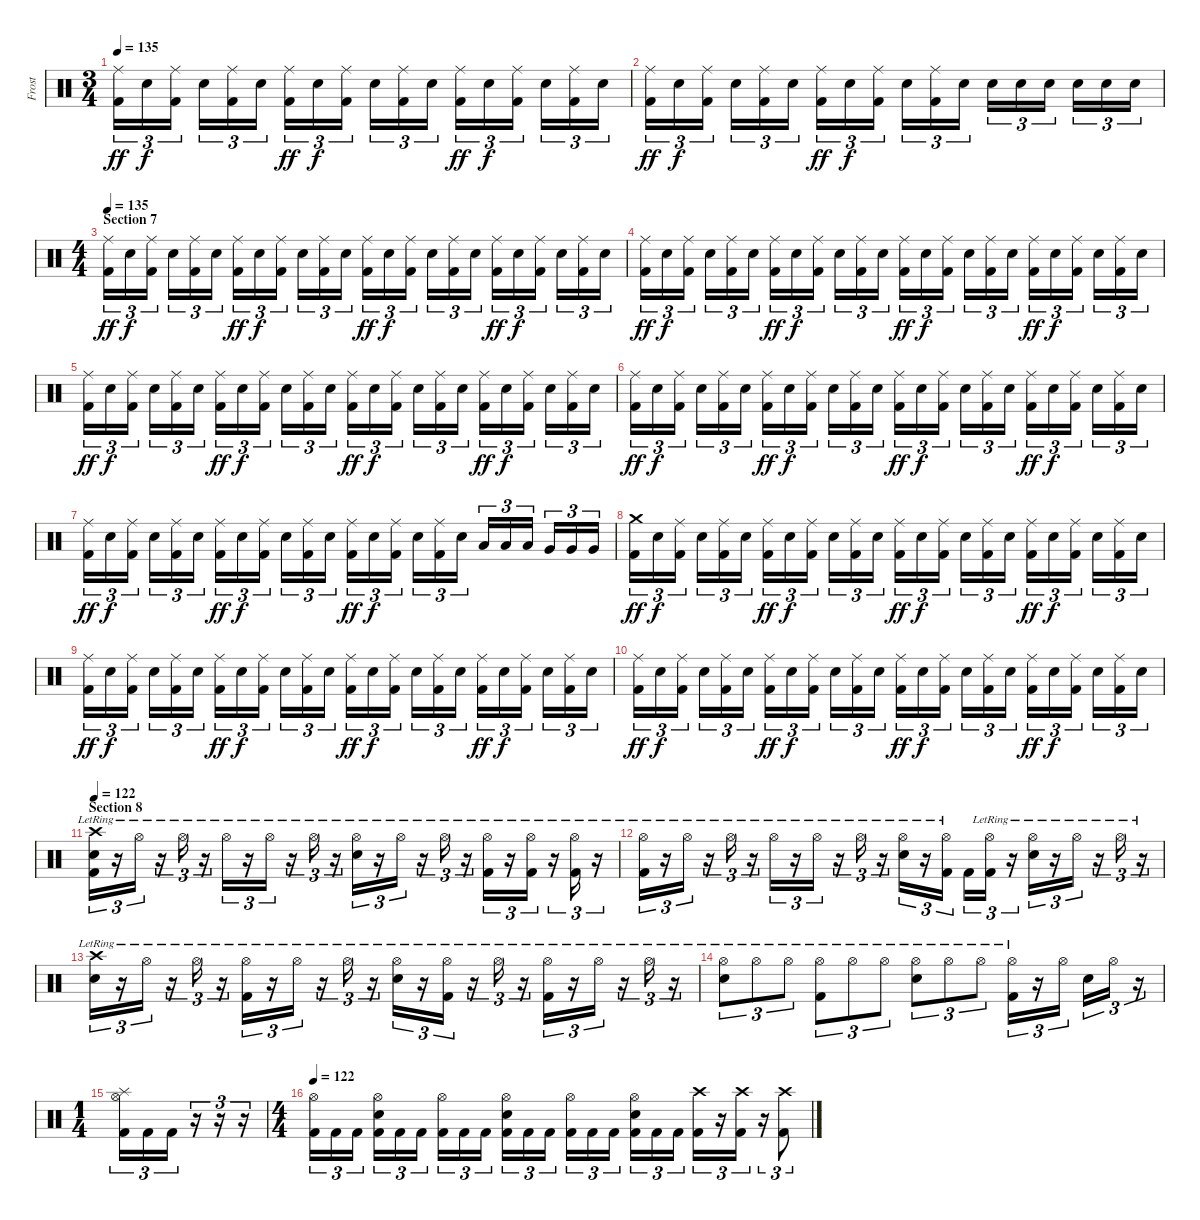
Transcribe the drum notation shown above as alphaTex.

\track ("Frost" "Frost") {instrument percussion}
\staff {score}
\articulation defaults
\ts (3 4)
\tempo 135
\clef neutral
\ks c
("Ride (middle)" "Kick (hit) 2").16{tu (3 2) dy ff} "Electric Snare (hit)".16{tu (3 2) dy f} ("Ride (middle)" "Kick (hit) 2").16{tu (3 2)} "Electric Snare (hit)".16{tu (3 2)} ("Ride (middle)" "Kick (hit) 2").16{tu (3 2)} "Electric Snare (hit)".16{tu (3 2)} ("Ride (middle)" "Kick (hit) 2").16{tu (3 2) dy ff} "Electric Snare (hit)".16{tu (3 2) dy f} ("Ride (middle)" "Kick (hit) 2").16{tu (3 2)} "Electric Snare (hit)".16{tu (3 2)} ("Ride (middle)" "Kick (hit) 2").16{tu (3 2)} "Electric Snare (hit)".16{tu (3 2)} ("Ride (middle)" "Kick (hit) 2").16{tu (3 2) dy ff} "Electric Snare (hit)".16{tu (3 2) dy f} ("Ride (middle)" "Kick (hit) 2").16{tu (3 2)} "Electric Snare (hit)".16{tu (3 2)} ("Ride (middle)" "Kick (hit) 2").16{tu (3 2)} "Electric Snare (hit)".16{tu (3 2)} |
("Ride (middle)" "Kick (hit) 2").16{tu (3 2) dy ff} "Electric Snare (hit)".16{tu (3 2) dy f} ("Ride (middle)" "Kick (hit) 2").16{tu (3 2)} "Electric Snare (hit)".16{tu (3 2)} ("Ride (middle)" "Kick (hit) 2").16{tu (3 2)} "Electric Snare (hit)".16{tu (3 2)} ("Ride (middle)" "Kick (hit) 2").16{tu (3 2) dy ff} "Electric Snare (hit)".16{tu (3 2) dy f} ("Ride (middle)" "Kick (hit) 2").16{tu (3 2)} "Electric Snare (hit)".16{tu (3 2)} ("Ride (middle)" "Kick (hit) 2").16{tu (3 2)} "Electric Snare (hit)".16{tu (3 2)} "Electric Snare (hit)".16{tu (3 2)} "Electric Snare (hit)".16{tu (3 2)} "Electric Snare (hit)".16{tu (3 2)} "Electric Snare (hit)".16{tu (3 2)} "Electric Snare (hit)".16{tu (3 2)} "Electric Snare (hit)".16{tu (3 2)} |
\ts (4 4)
\section ("" "Section 7")
\tempo 135
("Ride (middle)" "Kick (hit) 2").16{tu (3 2) dy ff} "Electric Snare (hit)".16{tu (3 2) dy f} ("Ride (middle)" "Kick (hit) 2").16{tu (3 2)} "Electric Snare (hit)".16{tu (3 2)} ("Ride (middle)" "Kick (hit) 2").16{tu (3 2)} "Electric Snare (hit)".16{tu (3 2)} ("Ride (middle)" "Kick (hit) 2").16{tu (3 2) dy ff} "Electric Snare (hit)".16{tu (3 2) dy f} ("Ride (middle)" "Kick (hit) 2").16{tu (3 2)} "Electric Snare (hit)".16{tu (3 2)} ("Ride (middle)" "Kick (hit) 2").16{tu (3 2)} "Electric Snare (hit)".16{tu (3 2)} ("Ride (middle)" "Kick (hit) 2").16{tu (3 2) dy ff} "Electric Snare (hit)".16{tu (3 2) dy f} ("Ride (middle)" "Kick (hit) 2").16{tu (3 2)} "Electric Snare (hit)".16{tu (3 2)} ("Ride (middle)" "Kick (hit) 2").16{tu (3 2)} "Electric Snare (hit)".16{tu (3 2)} ("Ride (middle)" "Kick (hit) 2").16{tu (3 2) dy ff} "Electric Snare (hit)".16{tu (3 2) dy f} ("Ride (middle)" "Kick (hit) 2").16{tu (3 2)} "Electric Snare (hit)".16{tu (3 2)} ("Ride (middle)" "Kick (hit) 2").16{tu (3 2)} "Electric Snare (hit)".16{tu (3 2)} |
("Ride (middle)" "Kick (hit) 2").16{tu (3 2) dy ff} "Electric Snare (hit)".16{tu (3 2) dy f} ("Ride (middle)" "Kick (hit) 2").16{tu (3 2)} "Electric Snare (hit)".16{tu (3 2)} ("Ride (middle)" "Kick (hit) 2").16{tu (3 2)} "Electric Snare (hit)".16{tu (3 2)} ("Ride (middle)" "Kick (hit) 2").16{tu (3 2) dy ff} "Electric Snare (hit)".16{tu (3 2) dy f} ("Ride (middle)" "Kick (hit) 2").16{tu (3 2)} "Electric Snare (hit)".16{tu (3 2)} ("Ride (middle)" "Kick (hit) 2").16{tu (3 2)} "Electric Snare (hit)".16{tu (3 2)} ("Ride (middle)" "Kick (hit) 2").16{tu (3 2) dy ff} "Electric Snare (hit)".16{tu (3 2) dy f} ("Ride (middle)" "Kick (hit) 2").16{tu (3 2)} "Electric Snare (hit)".16{tu (3 2)} ("Ride (middle)" "Kick (hit) 2").16{tu (3 2)} "Electric Snare (hit)".16{tu (3 2)} ("Ride (middle)" "Kick (hit) 2").16{tu (3 2) dy ff} "Electric Snare (hit)".16{tu (3 2) dy f} ("Ride (middle)" "Kick (hit) 2").16{tu (3 2)} "Electric Snare (hit)".16{tu (3 2)} ("Ride (middle)" "Kick (hit) 2").16{tu (3 2)} "Electric Snare (hit)".16{tu (3 2)} |
("Ride (middle)" "Kick (hit) 2").16{tu (3 2) dy ff} "Electric Snare (hit)".16{tu (3 2) dy f} ("Ride (middle)" "Kick (hit) 2").16{tu (3 2)} "Electric Snare (hit)".16{tu (3 2)} ("Ride (middle)" "Kick (hit) 2").16{tu (3 2)} "Electric Snare (hit)".16{tu (3 2)} ("Ride (middle)" "Kick (hit) 2").16{tu (3 2) dy ff} "Electric Snare (hit)".16{tu (3 2) dy f} ("Ride (middle)" "Kick (hit) 2").16{tu (3 2)} "Electric Snare (hit)".16{tu (3 2)} ("Ride (middle)" "Kick (hit) 2").16{tu (3 2)} "Electric Snare (hit)".16{tu (3 2)} ("Ride (middle)" "Kick (hit) 2").16{tu (3 2) dy ff} "Electric Snare (hit)".16{tu (3 2) dy f} ("Ride (middle)" "Kick (hit) 2").16{tu (3 2)} "Electric Snare (hit)".16{tu (3 2)} ("Ride (middle)" "Kick (hit) 2").16{tu (3 2)} "Electric Snare (hit)".16{tu (3 2)} ("Ride (middle)" "Kick (hit) 2").16{tu (3 2) dy ff} "Electric Snare (hit)".16{tu (3 2) dy f} ("Ride (middle)" "Kick (hit) 2").16{tu (3 2)} "Electric Snare (hit)".16{tu (3 2)} ("Ride (middle)" "Kick (hit) 2").16{tu (3 2)} "Electric Snare (hit)".16{tu (3 2)} |
("Ride (middle)" "Kick (hit) 2").16{tu (3 2) dy ff} "Electric Snare (hit)".16{tu (3 2) dy f} ("Ride (middle)" "Kick (hit) 2").16{tu (3 2)} "Electric Snare (hit)".16{tu (3 2)} ("Ride (middle)" "Kick (hit) 2").16{tu (3 2)} "Electric Snare (hit)".16{tu (3 2)} ("Ride (middle)" "Kick (hit) 2").16{tu (3 2) dy ff} "Electric Snare (hit)".16{tu (3 2) dy f} ("Ride (middle)" "Kick (hit) 2").16{tu (3 2)} "Electric Snare (hit)".16{tu (3 2)} ("Ride (middle)" "Kick (hit) 2").16{tu (3 2)} "Electric Snare (hit)".16{tu (3 2)} ("Ride (middle)" "Kick (hit) 2").16{tu (3 2) dy ff} "Electric Snare (hit)".16{tu (3 2) dy f} ("Ride (middle)" "Kick (hit) 2").16{tu (3 2)} "Electric Snare (hit)".16{tu (3 2)} ("Ride (middle)" "Kick (hit) 2").16{tu (3 2)} "Electric Snare (hit)".16{tu (3 2)} ("Ride (middle)" "Kick (hit) 2").16{tu (3 2) dy ff} "Electric Snare (hit)".16{tu (3 2) dy f} ("Ride (middle)" "Kick (hit) 2").16{tu (3 2)} "Electric Snare (hit)".16{tu (3 2)} ("Ride (middle)" "Kick (hit) 2").16{tu (3 2)} "Electric Snare (hit)".16{tu (3 2)} |
("Ride (middle)" "Kick (hit) 2").16{tu (3 2) dy ff} "Electric Snare (hit)".16{tu (3 2) dy f} ("Ride (middle)" "Kick (hit) 2").16{tu (3 2)} "Electric Snare (hit)".16{tu (3 2)} ("Ride (middle)" "Kick (hit) 2").16{tu (3 2)} "Electric Snare (hit)".16{tu (3 2)} ("Ride (middle)" "Kick (hit) 2").16{tu (3 2) dy ff} "Electric Snare (hit)".16{tu (3 2) dy f} ("Ride (middle)" "Kick (hit) 2").16{tu (3 2)} "Electric Snare (hit)".16{tu (3 2)} ("Ride (middle)" "Kick (hit) 2").16{tu (3 2)} "Electric Snare (hit)".16{tu (3 2)} ("Ride (middle)" "Kick (hit) 2").16{tu (3 2) dy ff} "Electric Snare (hit)".16{tu (3 2) dy f} ("Ride (middle)" "Kick (hit) 2").16{tu (3 2)} "Electric Snare (hit)".16{tu (3 2)} ("Ride (middle)" "Kick (hit) 2").16{tu (3 2)} "Electric Snare (hit)".16{tu (3 2)} "Low Tom (hit)".16{tu (3 2)} "Low Tom (hit)".16{tu (3 2)} "Low Tom (hit)".16{tu (3 2)} "Very Low Tom (hit)".16{tu (3 2)} "Very Low Tom (hit)".16{tu (3 2)} "Very Low Tom (hit)".16{tu (3 2)} |
("Crash medium (hit)" "Kick (hit) 2").16{tu (3 2) dy ff} "Electric Snare (hit)".16{tu (3 2) dy f} ("Ride (middle)" "Kick (hit) 2").16{tu (3 2)} "Electric Snare (hit)".16{tu (3 2)} ("Ride (middle)" "Kick (hit) 2").16{tu (3 2)} "Electric Snare (hit)".16{tu (3 2)} ("Ride (middle)" "Kick (hit) 2").16{tu (3 2) dy ff} "Electric Snare (hit)".16{tu (3 2) dy f} ("Ride (middle)" "Kick (hit) 2").16{tu (3 2)} "Electric Snare (hit)".16{tu (3 2)} ("Ride (middle)" "Kick (hit) 2").16{tu (3 2)} "Electric Snare (hit)".16{tu (3 2)} ("Ride (middle)" "Kick (hit) 2").16{tu (3 2) dy ff} "Electric Snare (hit)".16{tu (3 2) dy f} ("Ride (middle)" "Kick (hit) 2").16{tu (3 2)} "Electric Snare (hit)".16{tu (3 2)} ("Ride (middle)" "Kick (hit) 2").16{tu (3 2)} "Electric Snare (hit)".16{tu (3 2)} ("Ride (middle)" "Kick (hit) 2").16{tu (3 2) dy ff} "Electric Snare (hit)".16{tu (3 2) dy f} ("Ride (middle)" "Kick (hit) 2").16{tu (3 2)} "Electric Snare (hit)".16{tu (3 2)} ("Ride (middle)" "Kick (hit) 2").16{tu (3 2)} "Electric Snare (hit)".16{tu (3 2)} |
("Ride (middle)" "Kick (hit) 2").16{tu (3 2) dy ff} "Electric Snare (hit)".16{tu (3 2) dy f} ("Ride (middle)" "Kick (hit) 2").16{tu (3 2)} "Electric Snare (hit)".16{tu (3 2)} ("Ride (middle)" "Kick (hit) 2").16{tu (3 2)} "Electric Snare (hit)".16{tu (3 2)} ("Ride (middle)" "Kick (hit) 2").16{tu (3 2) dy ff} "Electric Snare (hit)".16{tu (3 2) dy f} ("Ride (middle)" "Kick (hit) 2").16{tu (3 2)} "Electric Snare (hit)".16{tu (3 2)} ("Ride (middle)" "Kick (hit) 2").16{tu (3 2)} "Electric Snare (hit)".16{tu (3 2)} ("Ride (middle)" "Kick (hit) 2").16{tu (3 2) dy ff} "Electric Snare (hit)".16{tu (3 2) dy f} ("Ride (middle)" "Kick (hit) 2").16{tu (3 2)} "Electric Snare (hit)".16{tu (3 2)} ("Ride (middle)" "Kick (hit) 2").16{tu (3 2)} "Electric Snare (hit)".16{tu (3 2)} ("Ride (middle)" "Kick (hit) 2").16{tu (3 2) dy ff} "Electric Snare (hit)".16{tu (3 2) dy f} ("Ride (middle)" "Kick (hit) 2").16{tu (3 2)} "Electric Snare (hit)".16{tu (3 2)} ("Ride (middle)" "Kick (hit) 2").16{tu (3 2)} "Electric Snare (hit)".16{tu (3 2)} |
("Ride (middle)" "Kick (hit) 2").16{tu (3 2) dy ff} "Electric Snare (hit)".16{tu (3 2) dy f} ("Ride (middle)" "Kick (hit) 2").16{tu (3 2)} "Electric Snare (hit)".16{tu (3 2)} ("Ride (middle)" "Kick (hit) 2").16{tu (3 2)} "Electric Snare (hit)".16{tu (3 2)} ("Ride (middle)" "Kick (hit) 2").16{tu (3 2) dy ff} "Electric Snare (hit)".16{tu (3 2) dy f} ("Ride (middle)" "Kick (hit) 2").16{tu (3 2)} "Electric Snare (hit)".16{tu (3 2)} ("Ride (middle)" "Kick (hit) 2").16{tu (3 2)} "Electric Snare (hit)".16{tu (3 2)} ("Ride (middle)" "Kick (hit) 2").16{tu (3 2) dy ff} "Electric Snare (hit)".16{tu (3 2) dy f} ("Ride (middle)" "Kick (hit) 2").16{tu (3 2)} "Electric Snare (hit)".16{tu (3 2)} ("Ride (middle)" "Kick (hit) 2").16{tu (3 2)} "Electric Snare (hit)".16{tu (3 2)} ("Ride (middle)" "Kick (hit) 2").16{tu (3 2) dy ff} "Electric Snare (hit)".16{tu (3 2) dy f} ("Ride (middle)" "Kick (hit) 2").16{tu (3 2)} "Electric Snare (hit)".16{tu (3 2)} ("Ride (middle)" "Kick (hit) 2").16{tu (3 2)} "Electric Snare (hit)".16{tu (3 2)} |
\section ("" "Section 8")
\tempo 122
("Crash high (hit)"{lr} "Electric Snare (hit)" "Kick (hit) 2").16{tu (3 2)} r.16{tu (3 2)} "Hi-Hat (open)"{lr}.16{tu (3 2)} r.16{tu (3 2)} "Hi-Hat (open)"{lr}.16{tu (3 2)} r.16{tu (3 2)} "Hi-Hat (open)"{lr}.16{tu (3 2)} r.16{tu (3 2)} "Hi-Hat (open)"{lr}.16{tu (3 2)} r.16{tu (3 2)} "Hi-Hat (open)"{lr}.16{tu (3 2)} r.16{tu (3 2)} ("Hi-Hat (open)"{lr} "Electric Snare (hit)").16{tu (3 2)} r.16{tu (3 2)} "Hi-Hat (open)"{lr}.16{tu (3 2)} r.16{tu (3 2)} "Hi-Hat (open)"{lr}.16{tu (3 2)} r.16{tu (3 2)} ("Hi-Hat (open)"{lr} "Kick (hit) 2").16{tu (3 2)} r.16{tu (3 2)} ("Hi-Hat (open)"{lr} "Kick (hit) 2").16{tu (3 2)} r.16{tu (3 2)} ("Hi-Hat (open)"{lr} "Kick (hit) 2").16{tu (3 2)} r.16{tu (3 2)} |
("Hi-Hat (open)"{lr} "Kick (hit) 2").16{tu (3 2)} r.16{tu (3 2)} "Hi-Hat (open)"{lr}.16{tu (3 2)} r.16{tu (3 2)} "Hi-Hat (open)"{lr}.16{tu (3 2)} r.16{tu (3 2)} "Hi-Hat (open)"{lr}.16{tu (3 2)} r.16{tu (3 2)} "Hi-Hat (open)"{lr}.16{tu (3 2)} r.16{tu (3 2)} "Hi-Hat (open)"{lr}.16{tu (3 2)} r.16{tu (3 2)} ("Hi-Hat (open)"{lr} "Electric Snare (hit)").16{tu (3 2)} r.16{tu (3 2)} ("Hi-Hat (open)"{lr} "Kick (hit) 2").16{tu (3 2)} "Kick (hit) 2".16{tu (3 2)} ("Hi-Hat (open)"{lr} "Kick (hit) 2").16{tu (3 2)} r.16{tu (3 2)} ("Hi-Hat (open)"{lr} "Electric Snare (hit)").16{tu (3 2)} r.16{tu (3 2)} "Hi-Hat (open)"{lr}.16{tu (3 2)} r.16{tu (3 2)} "Hi-Hat (open)"{lr}.16{tu (3 2)} r.16{tu (3 2)} |
("Crash high (hit)"{lr} "Electric Snare (hit)").16{tu (3 2)} r.16{tu (3 2)} "Hi-Hat (open)"{lr}.16{tu (3 2)} r.16{tu (3 2)} "Hi-Hat (open)"{lr}.16{tu (3 2)} r.16{tu (3 2)} ("Hi-Hat (open)"{lr} "Kick (hit) 2").16{tu (3 2)} r.16{tu (3 2)} "Hi-Hat (open)"{lr}.16{tu (3 2)} r.16{tu (3 2)} "Hi-Hat (open)"{lr}.16{tu (3 2)} r.16{tu (3 2)} ("Hi-Hat (open)"{lr} "Electric Snare (hit)").16{tu (3 2)} r.16{tu (3 2)} ("Hi-Hat (open)"{lr} "Kick (hit) 2").16{tu (3 2)} r.16{tu (3 2)} "Hi-Hat (open)"{lr}.16{tu (3 2)} r.16{tu (3 2)} ("Hi-Hat (open)"{lr} "Kick (hit) 2").16{tu (3 2)} r.16{tu (3 2)} "Hi-Hat (open)"{lr}.16{tu (3 2)} r.16{tu (3 2)} "Hi-Hat (open)"{lr}.16{tu (3 2)} r.16{tu (3 2)} |
("Hi-Hat (open)"{lr} "Electric Snare (hit)").8{tu (3 2)} "Hi-Hat (open)"{lr}.8{tu (3 2)} "Hi-Hat (open)"{lr}.8{tu (3 2)} ("Hi-Hat (open)"{lr} "Kick (hit) 2").8{tu (3 2)} "Hi-Hat (open)"{lr}.8{tu (3 2)} "Hi-Hat (open)"{lr}.8{tu (3 2)} ("Hi-Hat (open)"{lr} "Electric Snare (hit)").8{tu (3 2)} "Hi-Hat (open)"{lr}.8{tu (3 2)} "Hi-Hat (open)"{lr}.8{tu (3 2)} ("Hi-Hat (open)"{lr} "Kick (hit) 2").16{tu (3 2)} r.16{tu (3 2)} "Hi-Hat (open)".16{tu (3 2)} "Electric Snare (hit)".16{tu (3 2)} "Hi-Hat (open)".16{tu (3 2)} r.16{tu (3 2)} |
\ts (1 4)
("Hi-Hat (open)" "Splash (hit)" "Kick (hit) 2").16{tu (3 2)} "Kick (hit) 2".16{tu (3 2)} "Kick (hit) 2".16{tu (3 2)} r.16{tu (3 2)} r.16{tu (3 2)} r.16{tu (3 2)} |
\ts (4 4)
\tempo 122
("Hi-Hat (open)" "Kick (hit) 2").16{tu (3 2)} "Kick (hit) 2".16{tu (3 2)} "Kick (hit) 2".16{tu (3 2)} ("Hi-Hat (open)" "Electric Snare (hit)" "Kick (hit) 2").16{tu (3 2)} "Kick (hit) 2".16{tu (3 2)} "Kick (hit) 2".16{tu (3 2)} ("Hi-Hat (open)" "Kick (hit) 2").16{tu (3 2)} "Kick (hit) 2".16{tu (3 2)} "Kick (hit) 2".16{tu (3 2)} ("Hi-Hat (open)" "Electric Snare (hit)" "Kick (hit) 2").16{tu (3 2)} "Kick (hit) 2".16{tu (3 2)} "Kick (hit) 2".16{tu (3 2)} ("Hi-Hat (open)" "Kick (hit) 2").16{tu (3 2)} "Kick (hit) 2".16{tu (3 2)} "Kick (hit) 2".16{tu (3 2)} ("Hi-Hat (open)" "Electric Snare (hit)" "Kick (hit) 2").16{tu (3 2)} "Kick (hit) 2".16{tu (3 2)} "Kick (hit) 2".16{tu (3 2)} ("Crash high (hit)" "Kick (hit) 2").16{tu (3 2)} r.16{tu (3 2)} ("Crash high (hit)" "Kick (hit) 2").16{tu (3 2)} r.16{tu (3 2)} ("Crash high (hit)" "Kick (hit) 2").8{tu (3 2)}
